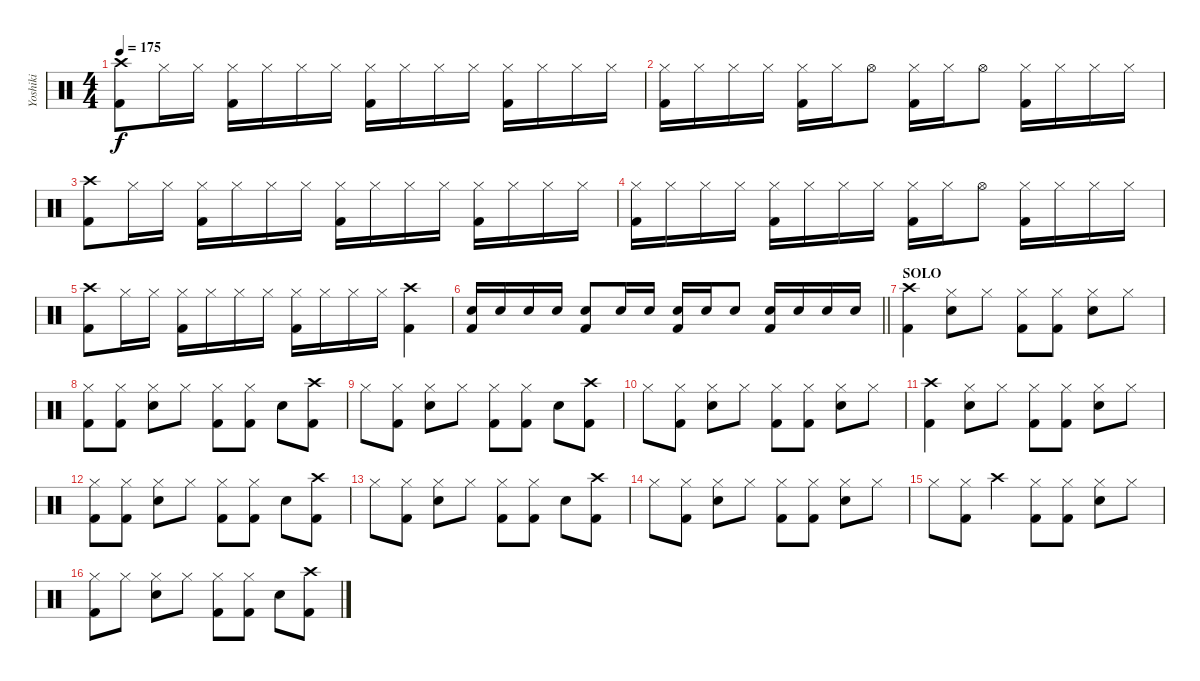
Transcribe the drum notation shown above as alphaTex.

\track ("Yoshiki" "Yoshiki") {instrument percussion}
\staff {score}
\articulation defaults
\ts (4 4)
\tempo 175
\clef neutral
\ks c
("Crash high (hit)" "Kick (hit) 2").8{dy f} "Hi-Hat (closed)".16 "Hi-Hat (closed)".16 ("Hi-Hat (closed)" "Kick (hit) 2").16 "Hi-Hat (closed)".16 "Hi-Hat (closed)".16 "Hi-Hat (closed)".16 ("Hi-Hat (closed)" "Kick (hit) 2").16 "Hi-Hat (closed)".16 "Hi-Hat (closed)".16 "Hi-Hat (closed)".16 ("Hi-Hat (closed)" "Kick (hit) 2").16 "Hi-Hat (closed)".16 "Hi-Hat (closed)".16 "Hi-Hat (closed)".16 |
("Hi-Hat (closed)" "Kick (hit) 2").16 "Hi-Hat (closed)".16 "Hi-Hat (closed)".16 "Hi-Hat (closed)".16 ("Hi-Hat (closed)" "Kick (hit) 2").16 "Hi-Hat (closed)".16 "Hi-Hat (open)".8 ("Hi-Hat (closed)" "Kick (hit) 2").16 "Hi-Hat (closed)".16 "Hi-Hat (open)".8 ("Hi-Hat (closed)" "Kick (hit) 2").16 "Hi-Hat (closed)".16 "Hi-Hat (closed)".16 "Hi-Hat (closed)".16 |
("Crash high (hit)" "Kick (hit) 2").8 "Hi-Hat (closed)".16 "Hi-Hat (closed)".16 ("Hi-Hat (closed)" "Kick (hit) 2").16 "Hi-Hat (closed)".16 "Hi-Hat (closed)".16 "Hi-Hat (closed)".16 ("Hi-Hat (closed)" "Kick (hit) 2").16 "Hi-Hat (closed)".16 "Hi-Hat (closed)".16 "Hi-Hat (closed)".16 ("Hi-Hat (closed)" "Kick (hit) 2").16 "Hi-Hat (closed)".16 "Hi-Hat (closed)".16 "Hi-Hat (closed)".16 |
("Hi-Hat (closed)" "Kick (hit) 2").16 "Hi-Hat (closed)".16 "Hi-Hat (closed)".16 "Hi-Hat (closed)".16 ("Hi-Hat (closed)" "Kick (hit) 2").16 "Hi-Hat (closed)".16 "Hi-Hat (closed)".16 "Hi-Hat (closed)".16 ("Hi-Hat (closed)" "Kick (hit) 2").16 "Hi-Hat (closed)".16 "Hi-Hat (open)".8 ("Hi-Hat (closed)" "Kick (hit) 2").16 "Hi-Hat (closed)".16 "Hi-Hat (closed)".16 "Hi-Hat (closed)".16 |
("Crash high (hit)" "Kick (hit) 2").8 "Hi-Hat (closed)".16 "Hi-Hat (closed)".16 ("Hi-Hat (closed)" "Kick (hit) 2").16 "Hi-Hat (closed)".16 "Hi-Hat (closed)".16 "Hi-Hat (closed)".16 ("Hi-Hat (closed)" "Kick (hit) 2").16 "Hi-Hat (closed)".16 "Hi-Hat (closed)".16 "Hi-Hat (closed)".16 ("Crash high (hit)" "Kick (hit) 2").4 |
\barLineRight lightlight
("Electric Snare (hit)" "Kick (hit) 2").16 "Electric Snare (hit)".16 "Electric Snare (hit)".16 "Electric Snare (hit)".16 ("Electric Snare (hit)" "Kick (hit) 2").8 "Electric Snare (hit)".16 "Electric Snare (hit)".16 ("Electric Snare (hit)" "Kick (hit) 2").16 "Electric Snare (hit)".16 "Electric Snare (hit)".8 ("Electric Snare (hit)" "Kick (hit) 2").16 "Electric Snare (hit)".16 "Electric Snare (hit)".16 "Electric Snare (hit)".16 |
\section ("" "SOLO")
("Crash high (hit)" "Kick (hit) 2").4 ("Hi-Hat (closed)" "Electric Snare (hit)").8 "Hi-Hat (closed)".8 ("Hi-Hat (closed)" "Kick (hit) 2").8 ("Hi-Hat (closed)" "Kick (hit) 2").8 ("Hi-Hat (closed)" "Electric Snare (hit)").8 "Hi-Hat (closed)".8 |
("Hi-Hat (closed)" "Kick (hit) 2").8 ("Hi-Hat (closed)" "Kick (hit) 2").8 ("Hi-Hat (closed)" "Electric Snare (hit)").8 "Hi-Hat (closed)".8 ("Hi-Hat (closed)" "Kick (hit) 2").8 ("Hi-Hat (closed)" "Kick (hit) 2").8 "Electric Snare (hit)".8 ("Crash high (hit)" "Kick (hit) 2").8 |
"Hi-Hat (closed)".8 ("Hi-Hat (closed)" "Kick (hit) 2").8 ("Hi-Hat (closed)" "Electric Snare (hit)").8 "Hi-Hat (closed)".8 ("Hi-Hat (closed)" "Kick (hit) 2").8 ("Hi-Hat (closed)" "Kick (hit) 2").8 "Electric Snare (hit)".8 ("Crash high (hit)" "Kick (hit) 2").8 |
"Hi-Hat (closed)".8 ("Hi-Hat (closed)" "Kick (hit) 2").8 ("Hi-Hat (closed)" "Electric Snare (hit)").8 "Hi-Hat (closed)".8 ("Hi-Hat (closed)" "Kick (hit) 2").8 ("Hi-Hat (closed)" "Kick (hit) 2").8 ("Hi-Hat (closed)" "Electric Snare (hit)").8 "Hi-Hat (closed)".8 |
("Crash high (hit)" "Kick (hit) 2").4 ("Hi-Hat (closed)" "Electric Snare (hit)").8 "Hi-Hat (closed)".8 ("Hi-Hat (closed)" "Kick (hit) 2").8 ("Hi-Hat (closed)" "Kick (hit) 2").8 ("Hi-Hat (closed)" "Electric Snare (hit)").8 "Hi-Hat (closed)".8 |
("Hi-Hat (closed)" "Kick (hit) 2").8 ("Hi-Hat (closed)" "Kick (hit) 2").8 ("Hi-Hat (closed)" "Electric Snare (hit)").8 "Hi-Hat (closed)".8 ("Hi-Hat (closed)" "Kick (hit) 2").8 ("Hi-Hat (closed)" "Kick (hit) 2").8 "Electric Snare (hit)".8 ("Crash high (hit)" "Kick (hit) 2").8 |
"Hi-Hat (closed)".8 ("Hi-Hat (closed)" "Kick (hit) 2").8 ("Hi-Hat (closed)" "Electric Snare (hit)").8 "Hi-Hat (closed)".8 ("Hi-Hat (closed)" "Kick (hit) 2").8 ("Hi-Hat (closed)" "Kick (hit) 2").8 "Electric Snare (hit)".8 ("Crash high (hit)" "Kick (hit) 2").8 |
"Hi-Hat (closed)".8 ("Hi-Hat (closed)" "Kick (hit) 2").8 ("Hi-Hat (closed)" "Electric Snare (hit)").8 "Hi-Hat (closed)".8 ("Hi-Hat (closed)" "Kick (hit) 2").8 ("Hi-Hat (closed)" "Kick (hit) 2").8 ("Hi-Hat (closed)" "Electric Snare (hit)").8 "Hi-Hat (closed)".8 |
"Hi-Hat (closed)".8 ("Hi-Hat (closed)" "Kick (hit) 2").8 "Crash high (hit)".4 ("Hi-Hat (closed)" "Kick (hit) 2").8 ("Hi-Hat (closed)" "Kick (hit) 2").8 ("Hi-Hat (closed)" "Electric Snare (hit)").8 "Hi-Hat (closed)".8 |
("Hi-Hat (closed)" "Kick (hit) 2").8 "Hi-Hat (closed)".8 ("Hi-Hat (closed)" "Electric Snare (hit)").8 "Hi-Hat (closed)".8 ("Hi-Hat (closed)" "Kick (hit) 2").8 ("Hi-Hat (closed)" "Kick (hit) 2").8 "Electric Snare (hit)".8 ("Crash high (hit)" "Kick (hit) 2").8
